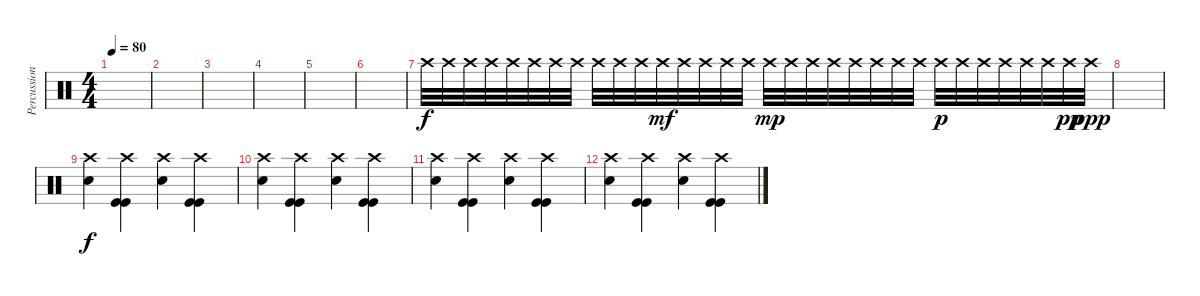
\track ("Percussion" "Percussion") {instrument percussion}
\staff {score}
\articulation defaults
\ts (4 4)
\tempo 80
\clef neutral
\ks c
|
|
|
|
|
|
"Crash high (hit)".32 "Crash high (hit)".32 "Crash high (hit)".32 "Crash high (hit)".32 "Crash high (hit)".32 "Crash high (hit)".32 "Crash high (hit)".32 "Crash high (hit)".32 "Crash high (hit)".32 "Crash high (hit)".32 "Crash high (hit)".32 "Crash high (hit)".32{dy mf} "Crash high (hit)".32 "Crash high (hit)".32 "Crash high (hit)".32 "Crash high (hit)".32 "Crash high (hit)".32{dy mp} "Crash high (hit)".32 "Crash high (hit)".32 "Crash high (hit)".32 "Crash high (hit)".32 "Crash high (hit)".32 "Crash high (hit)".32 "Crash high (hit)".32 "Crash high (hit)".32{dy p} "Crash high (hit)".32 "Crash high (hit)".32 "Crash high (hit)".32 "Crash high (hit)".32 "Crash high (hit)".32 "Crash high (hit)".32{dy pp} "Crash high (hit)".32{dy ppp} |
|
("Crash high (hit)" "Snare (hit) 2").4{dy f} ("Crash high (hit)" "Kick (hit)" "Kick (hit)").4 ("Crash high (hit)" "Snare (hit) 2").4 ("Crash high (hit)" "Kick (hit)" "Kick (hit)").4 |
("Crash high (hit)" "Snare (hit) 2").4 ("Crash high (hit)" "Kick (hit)" "Kick (hit)").4 ("Crash high (hit)" "Snare (hit) 2").4 ("Crash high (hit)" "Kick (hit)" "Kick (hit)").4 |
("Crash high (hit)" "Snare (hit) 2").4 ("Crash high (hit)" "Kick (hit)" "Kick (hit)").4 ("Crash high (hit)" "Snare (hit) 2").4 ("Crash high (hit)" "Kick (hit)" "Kick (hit)").4 |
("Crash high (hit)" "Snare (hit) 2").4 ("Crash high (hit)" "Kick (hit)" "Kick (hit)").4 ("Crash high (hit)" "Snare (hit) 2").4 ("Crash high (hit)" "Kick (hit)" "Kick (hit)").4
